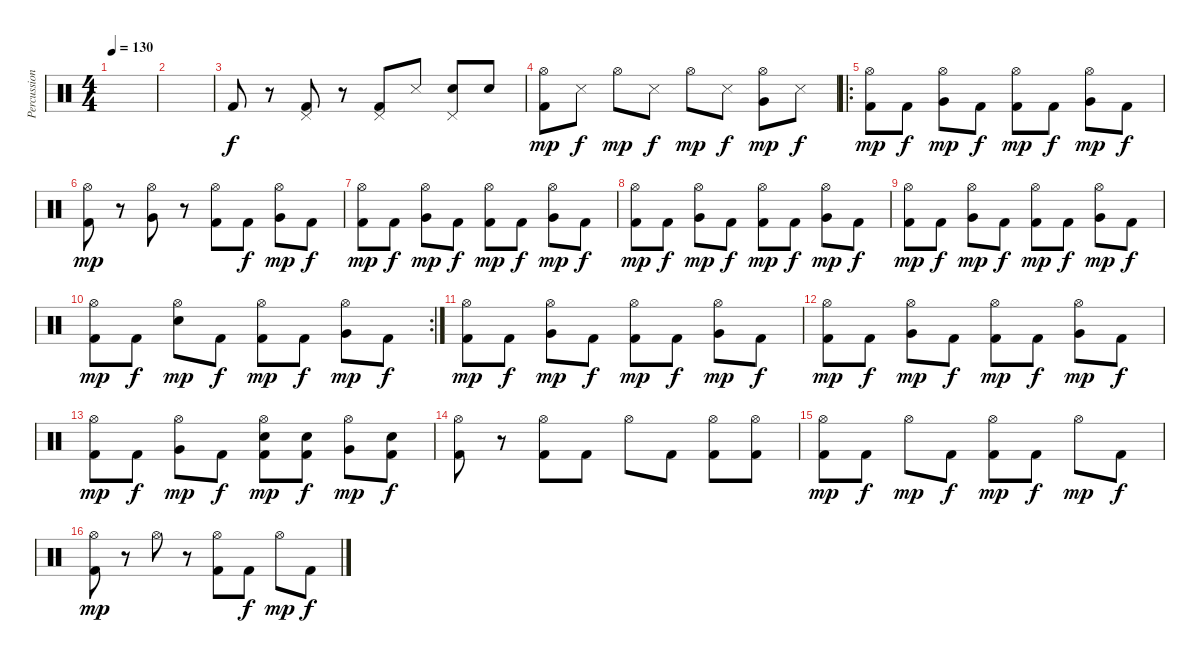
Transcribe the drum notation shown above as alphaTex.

\track ("Percussions" "Percussion") {instrument percussion}
\staff {score}
\articulation defaults
\ts (4 4)
\tempo 130
\clef neutral
\ks c
|
|
"Kick (hit) 2".8 r.8 ("Pedal Hi-Hat (hit)" "Kick (hit) 2").8 r.8 ("Pedal Hi-Hat (hit)" "Kick (hit) 2").8 "Snare (side stick) 3".8 ("Pedal Hi-Hat (hit)" "Snare (hit) 2").8 "Snare (hit) 2".8 |
("Hi-Hat (open)" "Kick (hit) 2").8{dy mp} "Snare (side stick) 3".8{dy f} "Hi-Hat (open)".8{dy mp} "Snare (side stick) 3".8{dy f} "Hi-Hat (open)".8{dy mp} "Snare (side stick) 3".8{dy f} ("Hi-Hat (open)" "Very Low Tom (hit)").8{dy mp} "Snare (side stick) 3".8{dy f} |
\ro
("Hi-Hat (open)" "Kick (hit) 2").8{dy mp} "Kick (hit) 2".8{dy f} ("Hi-Hat (open)" "Very Low Tom (hit)").8{dy mp} "Kick (hit) 2".8{dy f} ("Hi-Hat (open)" "Kick (hit) 2").8{dy mp} "Kick (hit) 2".8{dy f} ("Hi-Hat (open)" "Very Low Tom (hit)").8{dy mp} "Kick (hit) 2".8{dy f} |
("Hi-Hat (open)" "Kick (hit) 2").8{dy mp} r.8 ("Hi-Hat (open)" "Very Low Tom (hit)").8 r.8 ("Hi-Hat (open)" "Kick (hit) 2").8 "Kick (hit) 2".8{dy f} ("Hi-Hat (open)" "Very Low Tom (hit)").8{dy mp} "Kick (hit) 2".8{dy f} |
("Hi-Hat (open)" "Kick (hit) 2").8{dy mp} "Kick (hit) 2".8{dy f} ("Hi-Hat (open)" "Very Low Tom (hit)").8{dy mp} "Kick (hit) 2".8{dy f} ("Hi-Hat (open)" "Kick (hit) 2").8{dy mp} "Kick (hit) 2".8{dy f} ("Hi-Hat (open)" "Very Low Tom (hit)").8{dy mp} "Kick (hit) 2".8{dy f} |
("Hi-Hat (open)" "Kick (hit) 2").8{dy mp} "Kick (hit) 2".8{dy f} ("Hi-Hat (open)" "Very Low Tom (hit)").8{dy mp} "Kick (hit) 2".8{dy f} ("Hi-Hat (open)" "Kick (hit) 2").8{dy mp} "Kick (hit) 2".8{dy f} ("Hi-Hat (open)" "Very Low Tom (hit)").8{dy mp} "Kick (hit) 2".8{dy f} |
("Hi-Hat (open)" "Kick (hit) 2").8{dy mp} "Kick (hit) 2".8{dy f} ("Hi-Hat (open)" "Very Low Tom (hit)").8{dy mp} "Kick (hit) 2".8{dy f} ("Hi-Hat (open)" "Kick (hit) 2").8{dy mp} "Kick (hit) 2".8{dy f} ("Hi-Hat (open)" "Very Low Tom (hit)").8{dy mp} "Kick (hit) 2".8{dy f} |
\rc 2
("Hi-Hat (open)" "Kick (hit) 2").8{dy mp} "Kick (hit) 2".8{dy f} ("Hi-Hat (open)" "Snare (hit) 2").8{dy mp} "Kick (hit) 2".8{dy f} ("Hi-Hat (open)" "Kick (hit) 2").8{dy mp} "Kick (hit) 2".8{dy f} ("Hi-Hat (open)" "Very Low Tom (hit)").8{dy mp} "Kick (hit) 2".8{dy f} |
("Hi-Hat (open)" "Kick (hit) 2").8{dy mp} "Kick (hit) 2".8{dy f} ("Hi-Hat (open)" "Very Low Tom (hit)").8{dy mp} "Kick (hit) 2".8{dy f} ("Hi-Hat (open)" "Kick (hit) 2").8{dy mp} "Kick (hit) 2".8{dy f} ("Hi-Hat (open)" "Very Low Tom (hit)").8{dy mp} "Kick (hit) 2".8{dy f} |
("Hi-Hat (open)" "Kick (hit) 2").8{dy mp} "Kick (hit) 2".8{dy f} ("Hi-Hat (open)" "Very Low Tom (hit)").8{dy mp} "Kick (hit) 2".8{dy f} ("Hi-Hat (open)" "Kick (hit) 2").8{dy mp} "Kick (hit) 2".8{dy f} ("Hi-Hat (open)" "Very Low Tom (hit)").8{dy mp} "Kick (hit) 2".8{dy f} |
("Hi-Hat (open)" "Kick (hit) 2").8{dy mp} "Kick (hit) 2".8{dy f} ("Hi-Hat (open)" "Very Low Tom (hit)").8{dy mp} "Kick (hit) 2".8{dy f} ("Hi-Hat (open)" "Snare (hit) 2" "Kick (hit) 2").8{dy mp} ("Snare (hit) 2" "Kick (hit) 2").8{dy f} ("Hi-Hat (open)" "Very Low Tom (hit)").8{dy mp} ("Snare (hit) 2" "Kick (hit) 2").8{dy f} |
("Hi-Hat (open)" "Kick (hit) 2").8 r.8 ("Hi-Hat (open)" "Kick (hit) 2").8 "Kick (hit) 2".8 "Hi-Hat (open)".8 "Kick (hit) 2".8 ("Hi-Hat (open)" "Kick (hit) 2").8 ("Hi-Hat (open)" "Kick (hit) 2").8 |
("Hi-Hat (open)" "Kick (hit) 2").8{dy mp} "Kick (hit) 2".8{dy f} "Hi-Hat (open)".8{dy mp} "Kick (hit) 2".8{dy f} ("Hi-Hat (open)" "Kick (hit) 2").8{dy mp} "Kick (hit) 2".8{dy f} "Hi-Hat (open)".8{dy mp} "Kick (hit) 2".8{dy f} |
("Hi-Hat (open)" "Kick (hit) 2").8{dy mp} r.8 "Hi-Hat (open)".8 r.8 ("Hi-Hat (open)" "Kick (hit) 2").8 "Kick (hit) 2".8{dy f} "Hi-Hat (open)".8{dy mp} "Kick (hit) 2".8{dy f}
